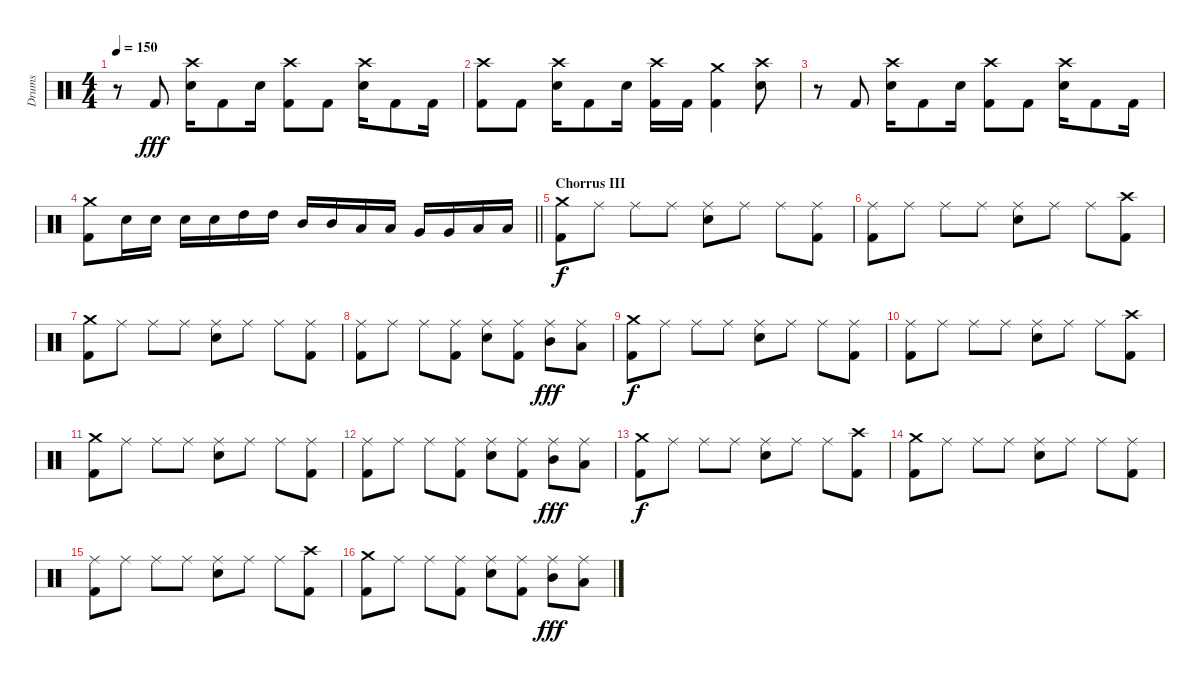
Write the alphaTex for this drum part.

\track ("Drums" "Drums") {instrument percussion}
\staff {score}
\articulation defaults
\ts (4 4)
\tempo 150
\clef neutral
\ks c
r.8{dy fff} "Kick (hit) 2".8 ("Crash high (hit)" "Electric Snare (hit)").16 "Kick (hit) 2".8 "Electric Snare (hit)".16 ("Crash high (hit)" "Kick (hit) 2").8 "Kick (hit) 2".8 ("Crash high (hit)" "Electric Snare (hit)").16 "Kick (hit) 2".8 "Kick (hit) 2".16 |
("Crash high (hit)" "Kick (hit) 2").8 "Kick (hit) 2".8 ("Crash high (hit)" "Electric Snare (hit)").16 "Kick (hit) 2".8 "Electric Snare (hit)".16 ("Crash high (hit)" "Kick (hit) 2").16 "Kick (hit) 2".16 ("Crash medium (hit)" "Kick (hit) 2").4 ("Crash high (hit)" "Electric Snare (hit)").8 |
r.8 "Kick (hit) 2".8 ("Crash high (hit)" "Electric Snare (hit)").16 "Kick (hit) 2".8 "Electric Snare (hit)".16 ("Crash high (hit)" "Kick (hit) 2").8 "Kick (hit) 2".8 ("Crash high (hit)" "Electric Snare (hit)").16 "Kick (hit) 2".8 "Kick (hit) 2".16 |
\barLineRight lightlight
("Crash medium (hit)" "Kick (hit) 2").8 "Electric Snare (hit)".16 "Electric Snare (hit)".16 "Electric Snare (hit)".16 "Electric Snare (hit)".16 "High Tom (hit)".16 "High Tom (hit)".16 "Mid Tom (hit)".16 "Mid Tom (hit)".16 "Low Tom (hit)".16 "Low Tom (hit)".16 "Very Low Tom (hit)".16 "Very Low Tom (hit)".16 "Low Floor Tom (hit)".16 "Low Floor Tom (hit)".16 |
\section ("" "Chorrus III")
("Crash medium (hit)" "Kick (hit) 2").8{dy f} "Ride (middle)".8 "Ride (middle)".8 "Ride (middle)".8 ("Ride (middle)" "Electric Snare (hit)").8 "Ride (middle)".8 "Ride (middle)".8 ("Ride (middle)" "Kick (hit) 2").8 |
("Ride (middle)" "Kick (hit) 2").8 "Ride (middle)".8 "Ride (middle)".8 "Ride (middle)".8 ("Ride (middle)" "Electric Snare (hit)").8 "Ride (middle)".8 "Ride (middle)".8 ("Crash high (hit)" "Kick (hit) 2").8 |
("Crash medium (hit)" "Kick (hit) 2").8 "Ride (middle)".8 "Ride (middle)".8 "Ride (middle)".8 ("Ride (middle)" "Electric Snare (hit)").8 "Ride (middle)".8 "Ride (middle)".8 ("Ride (middle)" "Kick (hit) 2").8 |
("Ride (middle)" "Kick (hit) 2").8 "Ride (middle)".8 "Ride (middle)".8 ("Ride (middle)" "Kick (hit) 2").8 ("Ride (middle)" "Electric Snare (hit)").8 ("Ride (middle)" "Kick (hit) 2").8 ("Ride (middle)" "Mid Tom (hit)").8{dy fff} ("Ride (middle)" "Low Tom (hit)").8 |
("Crash medium (hit)" "Kick (hit) 2").8{dy f} "Ride (middle)".8 "Ride (middle)".8 "Ride (middle)".8 ("Ride (middle)" "Electric Snare (hit)").8 "Ride (middle)".8 "Ride (middle)".8 ("Ride (middle)" "Kick (hit) 2").8 |
("Ride (middle)" "Kick (hit) 2").8 "Ride (middle)".8 "Ride (middle)".8 "Ride (middle)".8 ("Ride (middle)" "Electric Snare (hit)").8 "Ride (middle)".8 "Ride (middle)".8 ("Crash high (hit)" "Kick (hit) 2").8 |
("Crash medium (hit)" "Kick (hit) 2").8 "Ride (middle)".8 "Ride (middle)".8 "Ride (middle)".8 ("Ride (middle)" "Electric Snare (hit)").8 "Ride (middle)".8 "Ride (middle)".8 ("Ride (middle)" "Kick (hit) 2").8 |
("Ride (middle)" "Kick (hit) 2").8 "Ride (middle)".8 "Ride (middle)".8 ("Ride (middle)" "Kick (hit) 2").8 ("Ride (middle)" "Electric Snare (hit)").8 ("Ride (middle)" "Kick (hit) 2").8 ("Ride (middle)" "Mid Tom (hit)").8{dy fff} ("Ride (middle)" "Low Tom (hit)").8 |
("Crash medium (hit)" "Kick (hit) 2").8{dy f} "Ride (middle)".8 "Ride (middle)".8 "Ride (middle)".8 ("Ride (middle)" "Electric Snare (hit)").8 "Ride (middle)".8 "Ride (middle)".8 ("Crash high (hit)" "Kick (hit) 2").8 |
("Crash medium (hit)" "Kick (hit) 2").8 "Ride (middle)".8 "Ride (middle)".8 "Ride (middle)".8 ("Ride (middle)" "Electric Snare (hit)").8 "Ride (middle)".8 "Ride (middle)".8 ("Ride (middle)" "Kick (hit) 2").8 |
("Ride (middle)" "Kick (hit) 2").8 "Ride (middle)".8 "Ride (middle)".8 "Ride (middle)".8 ("Ride (middle)" "Electric Snare (hit)").8 "Ride (middle)".8 "Ride (middle)".8 ("Crash high (hit)" "Kick (hit) 2").8 |
("Crash medium (hit)" "Kick (hit) 2").8 "Ride (middle)".8 "Ride (middle)".8 ("Ride (middle)" "Kick (hit) 2").8 ("Ride (middle)" "Electric Snare (hit)").8 ("Ride (middle)" "Kick (hit) 2").8 ("Ride (middle)" "Mid Tom (hit)").8{dy fff} ("Ride (middle)" "Low Tom (hit)").8
